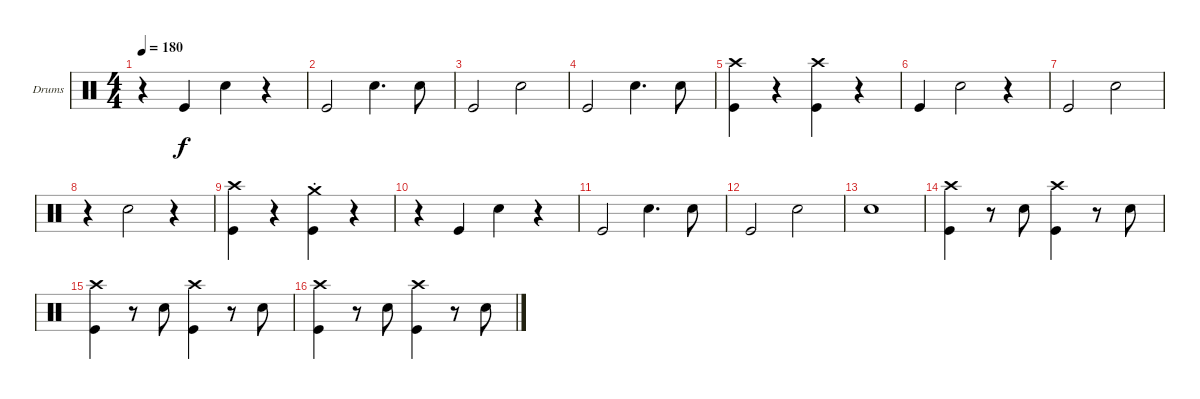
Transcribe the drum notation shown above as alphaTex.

\bracketExtendMode groupsimilarinstruments
\firstSystemTrackNameOrientation horizontal
\otherSystemsTrackNameOrientation horizontal
\track ("Drumkit" "Drums") {solo instrument percussion}
\staff {score}
\articulation defaults
\ts (4 4)
\tempo 180
\clef neutral
\ks c
r.4{dy f} "Kick (hit)".4 "Snare (hit) 2".4 r.4 |
"Kick (hit)".2 "Snare (hit) 2".4{d} "Snare (hit) 2".8 |
"Kick (hit)".2 "Snare (hit) 2".2 |
"Kick (hit)".2 "Snare (hit) 2".4{d} "Snare (hit) 2".8 |
("Crash high (hit)" "Kick (hit)").4 r.4 ("Crash high (hit)" "Kick (hit)").4 r.4 |
"Kick (hit)".4 "Snare (hit) 2".2 r.4 |
"Kick (hit)".2 "Snare (hit) 2".2 |
r.4 "Snare (hit) 2".2 r.4 |
("Crash high (hit)" "Kick (hit)").4 r.4 ("Kick (hit)" "Crash medium (hit)"{st}).4 r.4 |
r.4 "Kick (hit)".4 "Snare (hit) 2".4 r.4 |
"Kick (hit)".2 "Snare (hit) 2".4{d} "Snare (hit) 2".8 |
"Kick (hit)".2 "Snare (hit) 2".2 |
"Snare (hit) 2".1 |
("Crash high (hit)" "Kick (hit)").4 r.8 "Snare (hit) 2".8 ("Crash high (hit)" "Kick (hit)").4 r.8 "Snare (hit) 2".8 |
("Crash high (hit)" "Kick (hit)").4 r.8 "Snare (hit) 2".8 ("Crash high (hit)" "Kick (hit)").4 r.8 "Snare (hit) 2".8 |
("Crash high (hit)" "Kick (hit)").4 r.8 "Snare (hit) 2".8 ("Crash high (hit)" "Kick (hit)").4 r.8 "Snare (hit) 2".8
